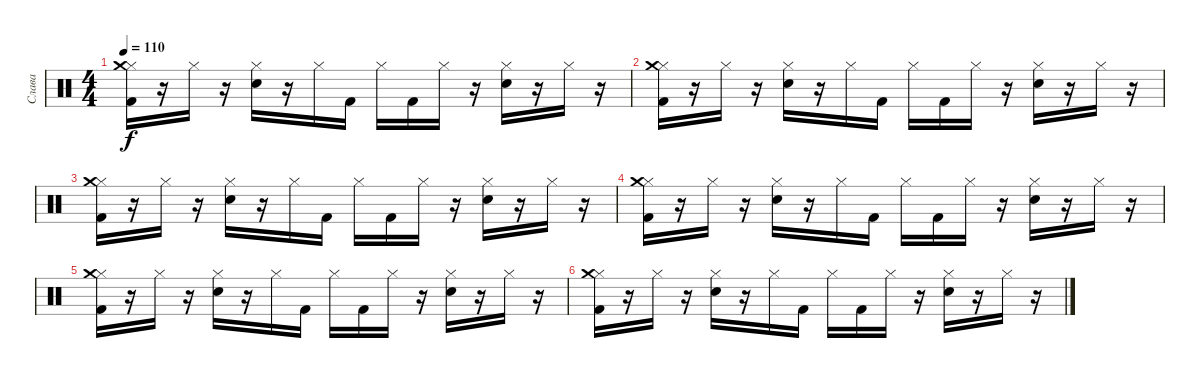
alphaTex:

\track ("Слава" "Слава") {instrument percussion}
\staff {score}
\articulation defaults
\ts (4 4)
\tempo 110
\clef neutral
\ks c
("Hi-Hat (closed)" "Crash medium (hit)" "Kick (hit) 2").16{dy f} r.16 "Hi-Hat (closed)".16 r.16 ("Hi-Hat (closed)" "Electric Snare (hit)").16 r.16 "Hi-Hat (closed)".16 "Kick (hit) 2".16 "Hi-Hat (closed)".16 "Kick (hit) 2".16 "Hi-Hat (closed)".16 r.16 ("Hi-Hat (closed)" "Electric Snare (hit)").16 r.16 "Hi-Hat (closed)".16 r.16 |
("Hi-Hat (closed)" "Crash medium (hit)" "Kick (hit) 2").16 r.16 "Hi-Hat (closed)".16 r.16 ("Hi-Hat (closed)" "Electric Snare (hit)").16 r.16 "Hi-Hat (closed)".16 "Kick (hit) 2".16 "Hi-Hat (closed)".16 "Kick (hit) 2".16 "Hi-Hat (closed)".16 r.16 ("Hi-Hat (closed)" "Electric Snare (hit)").16 r.16 "Hi-Hat (closed)".16 r.16 |
("Hi-Hat (closed)" "Crash medium (hit)" "Kick (hit) 2").16 r.16 "Hi-Hat (closed)".16 r.16 ("Hi-Hat (closed)" "Electric Snare (hit)").16 r.16 "Hi-Hat (closed)".16 "Kick (hit) 2".16 "Hi-Hat (closed)".16 "Kick (hit) 2".16 "Hi-Hat (closed)".16 r.16 ("Hi-Hat (closed)" "Electric Snare (hit)").16 r.16 "Hi-Hat (closed)".16 r.16 |
("Hi-Hat (closed)" "Crash medium (hit)" "Kick (hit) 2").16 r.16 "Hi-Hat (closed)".16 r.16 ("Hi-Hat (closed)" "Electric Snare (hit)").16 r.16 "Hi-Hat (closed)".16 "Kick (hit) 2".16 "Hi-Hat (closed)".16 "Kick (hit) 2".16 "Hi-Hat (closed)".16 r.16 ("Hi-Hat (closed)" "Electric Snare (hit)").16 r.16 "Hi-Hat (closed)".16 r.16 |
("Hi-Hat (closed)" "Crash medium (hit)" "Kick (hit) 2").16 r.16 "Hi-Hat (closed)".16 r.16 ("Hi-Hat (closed)" "Electric Snare (hit)").16 r.16 "Hi-Hat (closed)".16 "Kick (hit) 2".16 "Hi-Hat (closed)".16 "Kick (hit) 2".16 "Hi-Hat (closed)".16 r.16 ("Hi-Hat (closed)" "Electric Snare (hit)").16 r.16 "Hi-Hat (closed)".16 r.16 |
("Hi-Hat (closed)" "Crash medium (hit)" "Kick (hit) 2").16 r.16 "Hi-Hat (closed)".16 r.16 ("Hi-Hat (closed)" "Electric Snare (hit)").16 r.16 "Hi-Hat (closed)".16 "Kick (hit) 2".16 "Hi-Hat (closed)".16 "Kick (hit) 2".16 "Hi-Hat (closed)".16 r.16 ("Hi-Hat (closed)" "Electric Snare (hit)").16 r.16 "Hi-Hat (closed)".16 r.16
